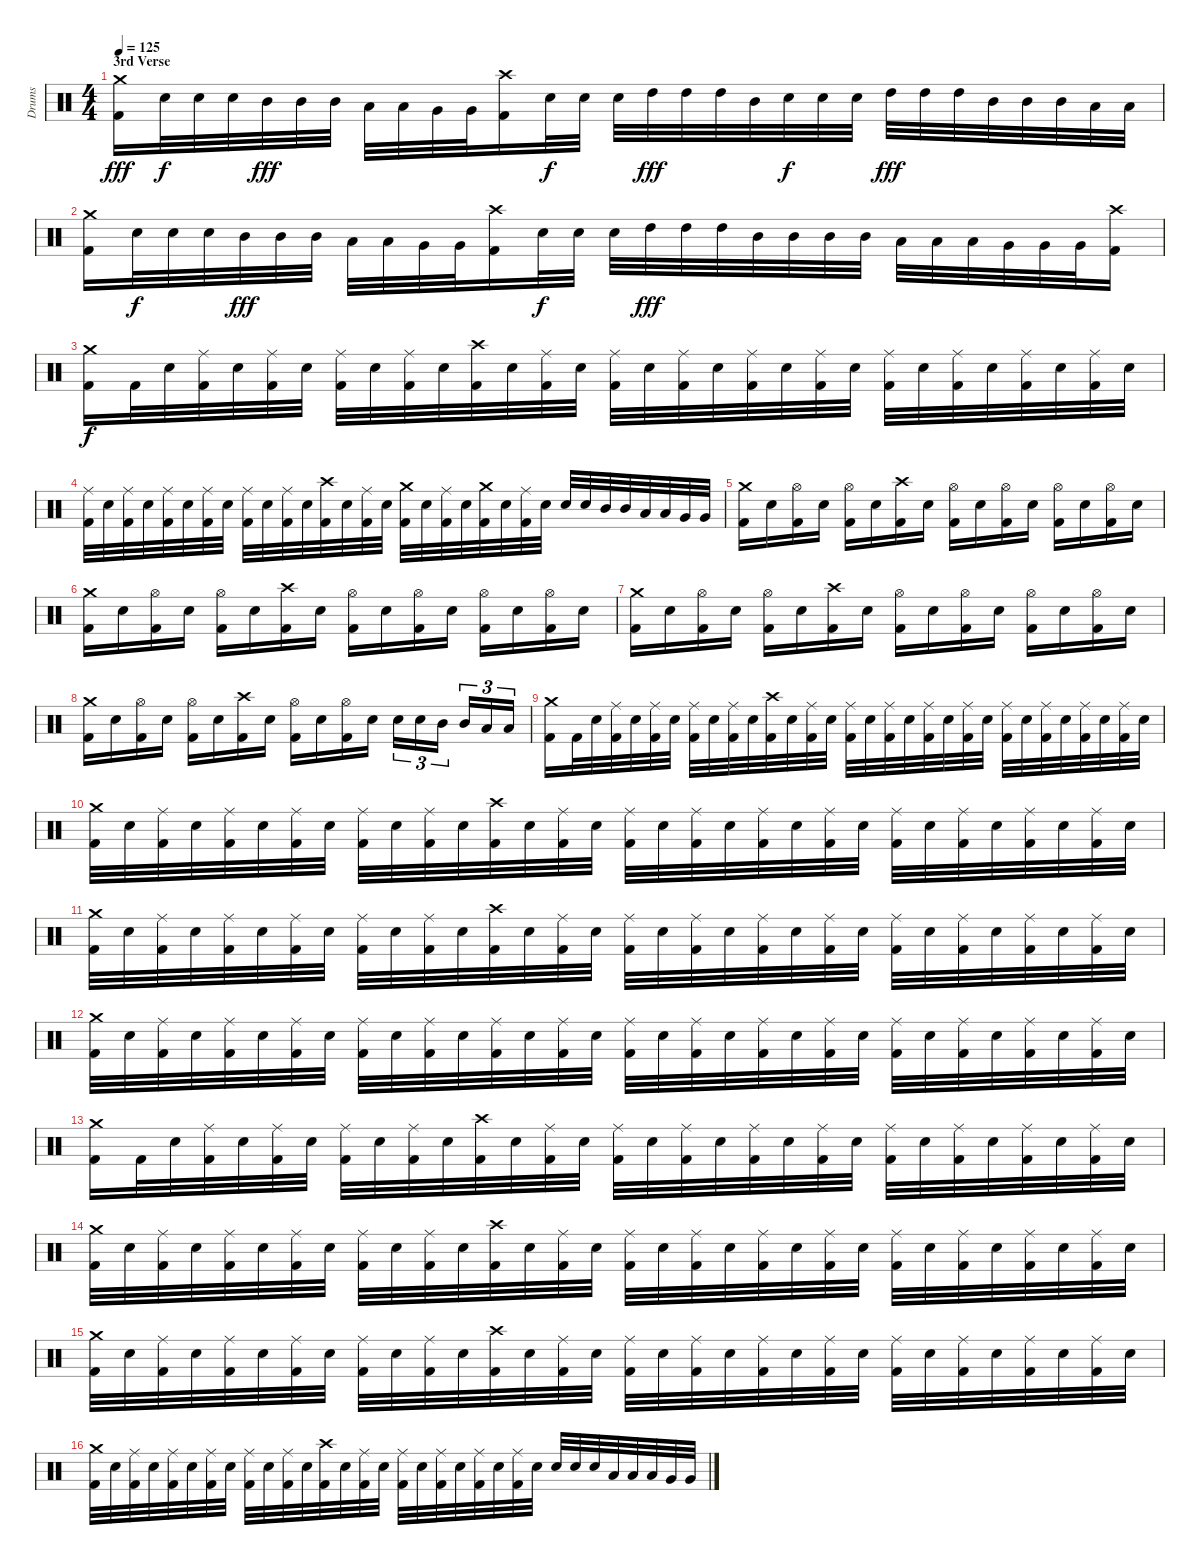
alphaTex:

\track ("Drums" "Drums") {instrument percussion}
\staff {score}
\articulation defaults
\ts (4 4)
\section ("" "3rd Verse")
\tempo 125
\clef neutral
\ks c
("Kick (hit) 2" "Crash medium (hit)").16{dy fff} "Electric Snare (hit)".32{dy f} "Electric Snare (hit)".32 "Electric Snare (hit)".32 "Mid Tom (hit)".32{dy fff} "Mid Tom (hit)".32 "Mid Tom (hit)".32 "Low Tom (hit)".32 "Low Tom (hit)".32 "Very Low Tom (hit)".32 "Very Low Tom (hit)".32 ("Kick (hit) 2" "Crash high (hit)").16 "Electric Snare (hit)".32{dy f} "Electric Snare (hit)".32 "Electric Snare (hit)".32 "High Tom (hit)".32{dy fff} "High Tom (hit)".32 "High Tom (hit)".32 "Mid Tom (hit)".32 "Electric Snare (hit)".32{dy f} "Electric Snare (hit)".32 "Electric Snare (hit)".32 "High Tom (hit)".32{dy fff} "High Tom (hit)".32 "High Tom (hit)".32 "Mid Tom (hit)".32 "Mid Tom (hit)".32 "Mid Tom (hit)".32 "Low Tom (hit)".32 "Low Tom (hit)".32 |
("Kick (hit) 2" "Crash medium (hit)").16 "Electric Snare (hit)".32{dy f} "Electric Snare (hit)".32 "Electric Snare (hit)".32 "Mid Tom (hit)".32{dy fff} "Mid Tom (hit)".32 "Mid Tom (hit)".32 "Low Tom (hit)".32 "Low Tom (hit)".32 "Very Low Tom (hit)".32 "Very Low Tom (hit)".32 ("Kick (hit) 2" "Crash high (hit)").16 "Electric Snare (hit)".32{dy f} "Electric Snare (hit)".32 "Electric Snare (hit)".32 "High Tom (hit)".32{dy fff} "High Tom (hit)".32 "High Tom (hit)".32 "Mid Tom (hit)".32 "Mid Tom (hit)".32 "Mid Tom (hit)".32 "Mid Tom (hit)".32 "Low Tom (hit)".32 "Low Tom (hit)".32 "Low Tom (hit)".32 "Very Low Tom (hit)".32 "Very Low Tom (hit)".32 "Very Low Tom (hit)".32 ("Kick (hit) 2" "Crash high (hit)").16 |
("Kick (hit) 2" "Crash medium (hit)").16{dy f} "Kick (hit) 2".32 "Electric Snare (hit)".32 ("Kick (hit) 2" "Ride (middle)").32 "Electric Snare (hit)".32 ("Kick (hit) 2" "Ride (middle)").32 "Electric Snare (hit)".32 ("Kick (hit) 2" "Ride (middle)").32 "Electric Snare (hit)".32 ("Kick (hit) 2" "Ride (middle)").32 "Electric Snare (hit)".32 ("Kick (hit) 2" "Crash high (hit)").32 "Electric Snare (hit)".32 ("Kick (hit) 2" "Ride (middle)").32 "Electric Snare (hit)".32 ("Kick (hit) 2" "Ride (middle)").32 "Electric Snare (hit)".32 ("Kick (hit) 2" "Ride (middle)").32 "Electric Snare (hit)".32 ("Kick (hit) 2" "Ride (middle)").32 "Electric Snare (hit)".32 ("Kick (hit) 2" "Ride (middle)").32 "Electric Snare (hit)".32 ("Kick (hit) 2" "Ride (middle)").32 "Electric Snare (hit)".32 ("Kick (hit) 2" "Ride (middle)").32 "Electric Snare (hit)".32 ("Kick (hit) 2" "Ride (middle)").32 "Electric Snare (hit)".32 ("Kick (hit) 2" "Ride (middle)").32 "Electric Snare (hit)".32 |
("Kick (hit) 2" "Ride (middle)").32 "Electric Snare (hit)".32 ("Kick (hit) 2" "Ride (middle)").32 "Electric Snare (hit)".32 ("Kick (hit) 2" "Ride (middle)").32 "Electric Snare (hit)".32 ("Kick (hit) 2" "Ride (middle)").32 "Electric Snare (hit)".32 ("Kick (hit) 2" "Ride (middle)").32 "Electric Snare (hit)".32 ("Kick (hit) 2" "Ride (middle)").32 "Electric Snare (hit)".32 ("Kick (hit) 2" "Crash high (hit)").32 "Electric Snare (hit)".32 ("Kick (hit) 2" "Ride (middle)").32 "Electric Snare (hit)".32 ("Kick (hit) 2" "Crash medium (hit)").32 "Electric Snare (hit)".32 ("Kick (hit) 2" "Ride (middle)").32 "Electric Snare (hit)".32 ("Kick (hit) 2" "Crash medium (hit)").32 "Electric Snare (hit)".32 ("Kick (hit) 2" "Ride (middle)").32 "Electric Snare (hit)".32 "Electric Snare (hit)".32 "Electric Snare (hit)".32 "Mid Tom (hit)".32 "Mid Tom (hit)".32 "Low Tom (hit)".32 "Low Tom (hit)".32 "Very Low Tom (hit)".32 "Very Low Tom (hit)".32 |
("Kick (hit) 2" "Crash medium (hit)").16 "Electric Snare (hit)".16 ("Kick (hit) 2" "Hi-Hat (open)").16 "Electric Snare (hit)".16 ("Kick (hit) 2" "Hi-Hat (open)").16 "Electric Snare (hit)".16 ("Kick (hit) 2" "Crash high (hit)").16 "Electric Snare (hit)".16 ("Kick (hit) 2" "Hi-Hat (open)").16 "Electric Snare (hit)".16 ("Kick (hit) 2" "Hi-Hat (open)").16 "Electric Snare (hit)".16 ("Kick (hit) 2" "Hi-Hat (open)").16 "Electric Snare (hit)".16 ("Kick (hit) 2" "Hi-Hat (open)").16 "Electric Snare (hit)".16 |
("Kick (hit) 2" "Crash medium (hit)").16 "Electric Snare (hit)".16 ("Kick (hit) 2" "Hi-Hat (open)").16 "Electric Snare (hit)".16 ("Kick (hit) 2" "Hi-Hat (open)").16 "Electric Snare (hit)".16 ("Kick (hit) 2" "Crash high (hit)").16 "Electric Snare (hit)".16 ("Kick (hit) 2" "Hi-Hat (open)").16 "Electric Snare (hit)".16 ("Kick (hit) 2" "Hi-Hat (open)").16 "Electric Snare (hit)".16 ("Kick (hit) 2" "Hi-Hat (open)").16 "Electric Snare (hit)".16 ("Kick (hit) 2" "Hi-Hat (open)").16 "Electric Snare (hit)".16 |
("Kick (hit) 2" "Crash medium (hit)").16 "Electric Snare (hit)".16 ("Kick (hit) 2" "Hi-Hat (open)").16 "Electric Snare (hit)".16 ("Kick (hit) 2" "Hi-Hat (open)").16 "Electric Snare (hit)".16 ("Kick (hit) 2" "Crash high (hit)").16 "Electric Snare (hit)".16 ("Kick (hit) 2" "Hi-Hat (open)").16 "Electric Snare (hit)".16 ("Kick (hit) 2" "Hi-Hat (open)").16 "Electric Snare (hit)".16 ("Kick (hit) 2" "Hi-Hat (open)").16 "Electric Snare (hit)".16 ("Kick (hit) 2" "Hi-Hat (open)").16 "Electric Snare (hit)".16 |
("Kick (hit) 2" "Crash medium (hit)").16 "Electric Snare (hit)".16 ("Kick (hit) 2" "Hi-Hat (open)").16 "Electric Snare (hit)".16 ("Kick (hit) 2" "Hi-Hat (open)").16 "Electric Snare (hit)".16 ("Kick (hit) 2" "Crash high (hit)").16 "Electric Snare (hit)".16 ("Kick (hit) 2" "Hi-Hat (open)").16 "Electric Snare (hit)".16 ("Kick (hit) 2" "Hi-Hat (open)").16 "Electric Snare (hit)".16 "Electric Snare (hit)".16{tu (3 2)} "Electric Snare (hit)".16{tu (3 2)} "Mid Tom (hit)".16{tu (3 2)} "Mid Tom (hit)".16{tu (3 2)} "Low Tom (hit)".16{tu (3 2)} "Low Tom (hit)".16{tu (3 2)} |
("Kick (hit) 2" "Crash medium (hit)").16 "Kick (hit) 2".32 "Electric Snare (hit)".32 ("Kick (hit) 2" "Ride (middle)").32 "Electric Snare (hit)".32 ("Kick (hit) 2" "Ride (middle)").32 "Electric Snare (hit)".32 ("Kick (hit) 2" "Ride (middle)").32 "Electric Snare (hit)".32 ("Kick (hit) 2" "Ride (middle)").32 "Electric Snare (hit)".32 ("Kick (hit) 2" "Crash high (hit)").32 "Electric Snare (hit)".32 ("Kick (hit) 2" "Ride (middle)").32 "Electric Snare (hit)".32 ("Kick (hit) 2" "Ride (middle)").32 "Electric Snare (hit)".32 ("Kick (hit) 2" "Ride (middle)").32 "Electric Snare (hit)".32 ("Kick (hit) 2" "Ride (middle)").32 "Electric Snare (hit)".32 ("Kick (hit) 2" "Ride (middle)").32 "Electric Snare (hit)".32 ("Kick (hit) 2" "Ride (middle)").32 "Electric Snare (hit)".32 ("Kick (hit) 2" "Ride (middle)").32 "Electric Snare (hit)".32 ("Kick (hit) 2" "Ride (middle)").32 "Electric Snare (hit)".32 ("Kick (hit) 2" "Ride (middle)").32 "Electric Snare (hit)".32 |
("Kick (hit) 2" "Crash medium (hit)").32 "Electric Snare (hit)".32 ("Kick (hit) 2" "Ride (middle)").32 "Electric Snare (hit)".32 ("Kick (hit) 2" "Ride (middle)").32 "Electric Snare (hit)".32 ("Kick (hit) 2" "Ride (middle)").32 "Electric Snare (hit)".32 ("Kick (hit) 2" "Ride (middle)").32 "Electric Snare (hit)".32 ("Kick (hit) 2" "Ride (middle)").32 "Electric Snare (hit)".32 ("Kick (hit) 2" "Crash high (hit)").32 "Electric Snare (hit)".32 ("Kick (hit) 2" "Ride (middle)").32 "Electric Snare (hit)".32 ("Kick (hit) 2" "Ride (middle)").32 "Electric Snare (hit)".32 ("Kick (hit) 2" "Ride (middle)").32 "Electric Snare (hit)".32 ("Kick (hit) 2" "Ride (middle)").32 "Electric Snare (hit)".32 ("Kick (hit) 2" "Ride (middle)").32 "Electric Snare (hit)".32 ("Kick (hit) 2" "Ride (middle)").32 "Electric Snare (hit)".32 ("Kick (hit) 2" "Ride (middle)").32 "Electric Snare (hit)".32 ("Kick (hit) 2" "Ride (middle)").32 "Electric Snare (hit)".32 ("Kick (hit) 2" "Ride (middle)").32 "Electric Snare (hit)".32 |
("Kick (hit) 2" "Crash medium (hit)").32 "Electric Snare (hit)".32 ("Kick (hit) 2" "Ride (middle)").32 "Electric Snare (hit)".32 ("Kick (hit) 2" "Ride (middle)").32 "Electric Snare (hit)".32 ("Kick (hit) 2" "Ride (middle)").32 "Electric Snare (hit)".32 ("Kick (hit) 2" "Ride (middle)").32 "Electric Snare (hit)".32 ("Kick (hit) 2" "Ride (middle)").32 "Electric Snare (hit)".32 ("Kick (hit) 2" "Crash high (hit)").32 "Electric Snare (hit)".32 ("Kick (hit) 2" "Ride (middle)").32 "Electric Snare (hit)".32 ("Kick (hit) 2" "Ride (middle)").32 "Electric Snare (hit)".32 ("Kick (hit) 2" "Ride (middle)").32 "Electric Snare (hit)".32 ("Kick (hit) 2" "Ride (middle)").32 "Electric Snare (hit)".32 ("Kick (hit) 2" "Ride (middle)").32 "Electric Snare (hit)".32 ("Kick (hit) 2" "Ride (middle)").32 "Electric Snare (hit)".32 ("Kick (hit) 2" "Ride (middle)").32 "Electric Snare (hit)".32 ("Kick (hit) 2" "Ride (middle)").32 "Electric Snare (hit)".32 ("Kick (hit) 2" "Ride (middle)").32 "Electric Snare (hit)".32 |
("Kick (hit) 2" "Crash medium (hit)").32 "Electric Snare (hit)".32 ("Kick (hit) 2" "Ride (middle)").32 "Electric Snare (hit)".32 ("Kick (hit) 2" "Ride (middle)").32 "Electric Snare (hit)".32 ("Kick (hit) 2" "Ride (middle)").32 "Electric Snare (hit)".32 ("Kick (hit) 2" "Ride (middle)").32 "Electric Snare (hit)".32 ("Kick (hit) 2" "Ride (middle)").32 "Electric Snare (hit)".32 ("Kick (hit) 2" "Ride (middle)").32 "Electric Snare (hit)".32 ("Kick (hit) 2" "Ride (middle)").32 "Electric Snare (hit)".32 ("Kick (hit) 2" "Ride (middle)").32 "Electric Snare (hit)".32 ("Kick (hit) 2" "Ride (middle)").32 "Electric Snare (hit)".32 ("Kick (hit) 2" "Ride (middle)").32 "Electric Snare (hit)".32 ("Kick (hit) 2" "Ride (middle)").32 "Electric Snare (hit)".32 ("Kick (hit) 2" "Ride (middle)").32 "Electric Snare (hit)".32 ("Kick (hit) 2" "Ride (middle)").32 "Electric Snare (hit)".32 ("Kick (hit) 2" "Ride (middle)").32 "Electric Snare (hit)".32 ("Kick (hit) 2" "Ride (middle)").32 "Electric Snare (hit)".32 |
("Kick (hit) 2" "Crash medium (hit)").16 "Kick (hit) 2".32 "Electric Snare (hit)".32 ("Kick (hit) 2" "Ride (middle)").32 "Electric Snare (hit)".32 ("Kick (hit) 2" "Ride (middle)").32 "Electric Snare (hit)".32 ("Kick (hit) 2" "Ride (middle)").32 "Electric Snare (hit)".32 ("Kick (hit) 2" "Ride (middle)").32 "Electric Snare (hit)".32 ("Kick (hit) 2" "Crash high (hit)").32 "Electric Snare (hit)".32 ("Kick (hit) 2" "Ride (middle)").32 "Electric Snare (hit)".32 ("Kick (hit) 2" "Ride (middle)").32 "Electric Snare (hit)".32 ("Kick (hit) 2" "Ride (middle)").32 "Electric Snare (hit)".32 ("Kick (hit) 2" "Ride (middle)").32 "Electric Snare (hit)".32 ("Kick (hit) 2" "Ride (middle)").32 "Electric Snare (hit)".32 ("Kick (hit) 2" "Ride (middle)").32 "Electric Snare (hit)".32 ("Kick (hit) 2" "Ride (middle)").32 "Electric Snare (hit)".32 ("Kick (hit) 2" "Ride (middle)").32 "Electric Snare (hit)".32 ("Kick (hit) 2" "Ride (middle)").32 "Electric Snare (hit)".32 |
("Kick (hit) 2" "Crash medium (hit)").32 "Electric Snare (hit)".32 ("Kick (hit) 2" "Ride (middle)").32 "Electric Snare (hit)".32 ("Kick (hit) 2" "Ride (middle)").32 "Electric Snare (hit)".32 ("Kick (hit) 2" "Ride (middle)").32 "Electric Snare (hit)".32 ("Kick (hit) 2" "Ride (middle)").32 "Electric Snare (hit)".32 ("Kick (hit) 2" "Ride (middle)").32 "Electric Snare (hit)".32 ("Kick (hit) 2" "Crash high (hit)").32 "Electric Snare (hit)".32 ("Kick (hit) 2" "Ride (middle)").32 "Electric Snare (hit)".32 ("Kick (hit) 2" "Ride (middle)").32 "Electric Snare (hit)".32 ("Kick (hit) 2" "Ride (middle)").32 "Electric Snare (hit)".32 ("Kick (hit) 2" "Ride (middle)").32 "Electric Snare (hit)".32 ("Kick (hit) 2" "Ride (middle)").32 "Electric Snare (hit)".32 ("Kick (hit) 2" "Ride (middle)").32 "Electric Snare (hit)".32 ("Kick (hit) 2" "Ride (middle)").32 "Electric Snare (hit)".32 ("Kick (hit) 2" "Ride (middle)").32 "Electric Snare (hit)".32 ("Kick (hit) 2" "Ride (middle)").32 "Electric Snare (hit)".32 |
("Kick (hit) 2" "Crash medium (hit)").32 "Electric Snare (hit)".32 ("Kick (hit) 2" "Ride (middle)").32 "Electric Snare (hit)".32 ("Kick (hit) 2" "Ride (middle)").32 "Electric Snare (hit)".32 ("Kick (hit) 2" "Ride (middle)").32 "Electric Snare (hit)".32 ("Kick (hit) 2" "Ride (middle)").32 "Electric Snare (hit)".32 ("Kick (hit) 2" "Ride (middle)").32 "Electric Snare (hit)".32 ("Kick (hit) 2" "Crash high (hit)").32 "Electric Snare (hit)".32 ("Kick (hit) 2" "Ride (middle)").32 "Electric Snare (hit)".32 ("Kick (hit) 2" "Ride (middle)").32 "Electric Snare (hit)".32 ("Kick (hit) 2" "Ride (middle)").32 "Electric Snare (hit)".32 ("Kick (hit) 2" "Ride (middle)").32 "Electric Snare (hit)".32 ("Kick (hit) 2" "Ride (middle)").32 "Electric Snare (hit)".32 ("Kick (hit) 2" "Ride (middle)").32 "Electric Snare (hit)".32 ("Kick (hit) 2" "Ride (middle)").32 "Electric Snare (hit)".32 ("Kick (hit) 2" "Ride (middle)").32 "Electric Snare (hit)".32 ("Kick (hit) 2" "Ride (middle)").32 "Electric Snare (hit)".32 |
("Kick (hit) 2" "Crash medium (hit)").32 "Electric Snare (hit)".32 ("Kick (hit) 2" "Ride (middle)").32 "Electric Snare (hit)".32 ("Kick (hit) 2" "Ride (middle)").32 "Electric Snare (hit)".32 ("Kick (hit) 2" "Ride (middle)").32 "Electric Snare (hit)".32 ("Kick (hit) 2" "Ride (middle)").32 "Electric Snare (hit)".32 ("Kick (hit) 2" "Ride (middle)").32 "Electric Snare (hit)".32 ("Kick (hit) 2" "Crash high (hit)").32 "Electric Snare (hit)".32 ("Kick (hit) 2" "Ride (middle)").32 "Electric Snare (hit)".32 ("Kick (hit) 2" "Ride (middle)").32 "Electric Snare (hit)".32 ("Kick (hit) 2" "Ride (middle)").32 "Electric Snare (hit)".32 ("Kick (hit) 2" "Ride (middle)").32 "Electric Snare (hit)".32 ("Kick (hit) 2" "Ride (middle)").32 "Electric Snare (hit)".32 "Electric Snare (hit)".32 "Electric Snare (hit)".32 "Electric Snare (hit)".32 "Low Tom (hit)".32 "Low Tom (hit)".32 "Low Tom (hit)".32 "Very Low Tom (hit)".32 "Very Low Tom (hit)".32
